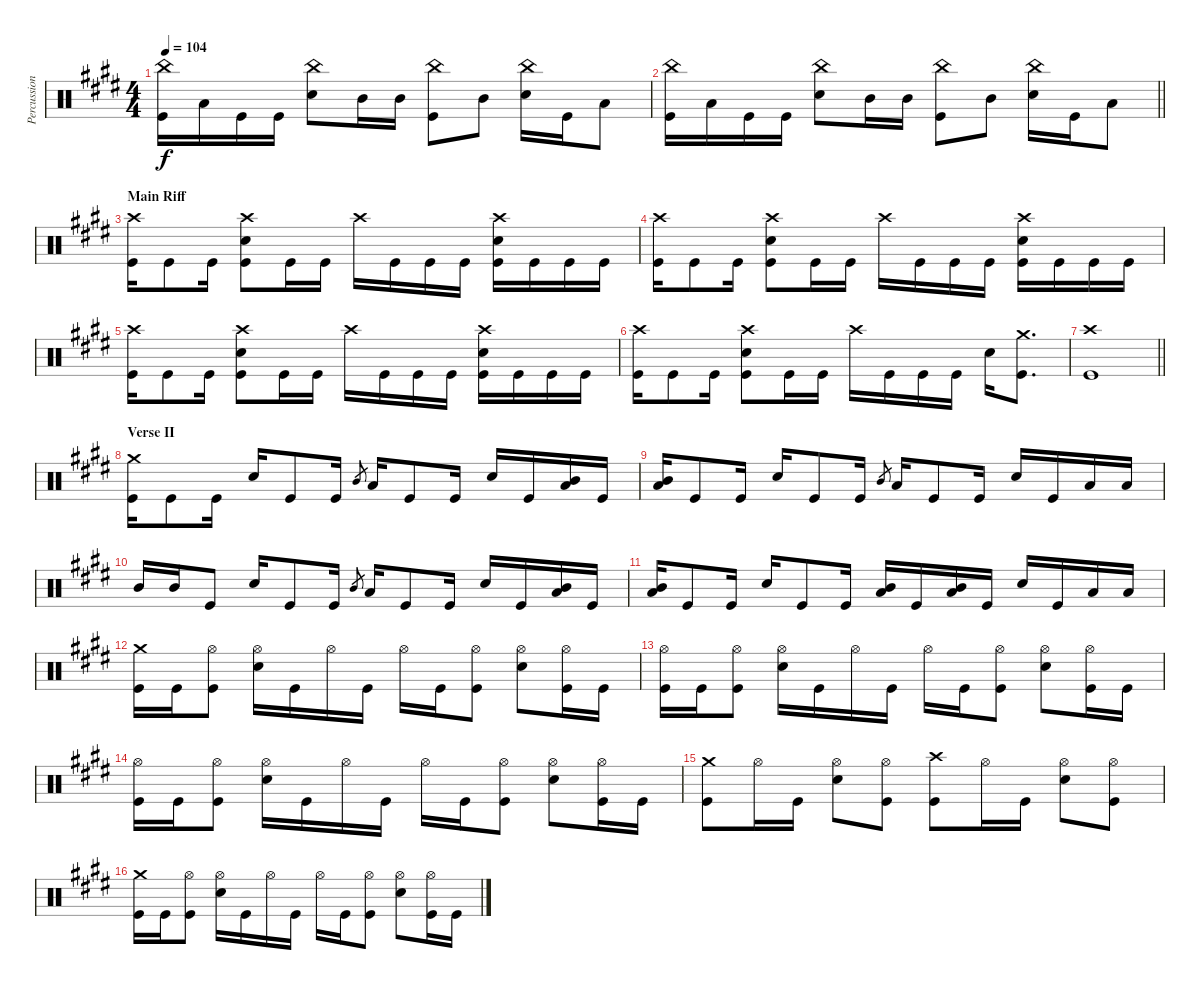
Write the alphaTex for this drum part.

\track ("Percussion" "Percussion") {instrument percussion}
\staff {score}
\articulation defaults
\ts (4 4)
\tempo 104
\clef neutral
\ks e
("China (hit)" "Kick (hit)").16{dy f} "Low Tom (hit)".16 "Kick (hit)".16 "Kick (hit)".16 ("China (hit)" "Electric Snare (hit)").8 "Mid Tom (hit)".16 "Mid Tom (hit)".16 ("China (hit)" "Kick (hit)").8 "Mid Tom (hit)".8 ("China (hit)" "Electric Snare (hit)").16 "Kick (hit)".16 "Low Tom (hit)".8 |
\barLineRight lightlight
("China (hit)" "Kick (hit)").16 "Low Tom (hit)".16 "Kick (hit)".16 "Kick (hit)".16 ("China (hit)" "Electric Snare (hit)").8 "Mid Tom (hit)".16 "Mid Tom (hit)".16 ("China (hit)" "Kick (hit)").8 "Mid Tom (hit)".8 ("China (hit)" "Electric Snare (hit)").16 "Kick (hit)".16 "Low Tom (hit)".8 |
\section ("" "Main Riff")
("Crash high (hit)" "Kick (hit)").16 "Kick (hit)".8 "Kick (hit)".16 ("Crash high (hit)" "Electric Snare (hit)" "Kick (hit)").8 "Kick (hit)".16 "Kick (hit)".16 "Crash high (hit)".16 "Kick (hit)".16 "Kick (hit)".16 "Kick (hit)".16 ("Crash high (hit)" "Electric Snare (hit)" "Kick (hit)").16 "Kick (hit)".16 "Kick (hit)".16 "Kick (hit)".16 |
("Crash high (hit)" "Kick (hit)").16 "Kick (hit)".8 "Kick (hit)".16 ("Crash high (hit)" "Electric Snare (hit)" "Kick (hit)").8 "Kick (hit)".16 "Kick (hit)".16 "Crash high (hit)".16 "Kick (hit)".16 "Kick (hit)".16 "Kick (hit)".16 ("Crash high (hit)" "Electric Snare (hit)" "Kick (hit)").16 "Kick (hit)".16 "Kick (hit)".16 "Kick (hit)".16 |
("Crash high (hit)" "Kick (hit)").16 "Kick (hit)".8 "Kick (hit)".16 ("Crash high (hit)" "Electric Snare (hit)" "Kick (hit)").8 "Kick (hit)".16 "Kick (hit)".16 "Crash high (hit)".16 "Kick (hit)".16 "Kick (hit)".16 "Kick (hit)".16 ("Crash high (hit)" "Electric Snare (hit)" "Kick (hit)").16 "Kick (hit)".16 "Kick (hit)".16 "Kick (hit)".16 |
("Crash high (hit)" "Kick (hit)").16 "Kick (hit)".8 "Kick (hit)".16 ("Crash high (hit)" "Electric Snare (hit)" "Kick (hit)").8 "Kick (hit)".16 "Kick (hit)".16 "Crash high (hit)".16 "Kick (hit)".16 "Kick (hit)".16 "Kick (hit)".16 "Electric Snare (hit)".16 ("Crash medium (hit)" "Kick (hit)").8{d} |
\barLineRight lightlight
("Crash high (hit)" "Kick (hit)").1 |
\section ("" "Verse II")
("Crash medium (hit)" "Kick (hit)").16 "Kick (hit)".8 "Kick (hit)".16 "Electric Snare (hit)".16 "Kick (hit)".8 "Kick (hit)".16 "Mid Tom (hit)".8{gr} "Low Tom (hit)".16 "Kick (hit)".8 "Kick (hit)".16 "Electric Snare (hit)".16 "Kick (hit)".16 ("Mid Tom (hit)" "Low Tom (hit)").16 "Kick (hit)".16 |
("Mid Tom (hit)" "Low Tom (hit)").16 "Kick (hit)".8 "Kick (hit)".16 "Electric Snare (hit)".16 "Kick (hit)".8 "Kick (hit)".16 "Mid Tom (hit)".8{gr} "Low Tom (hit)".16 "Kick (hit)".8 "Kick (hit)".16 "Electric Snare (hit)".16 "Kick (hit)".16 "Low Tom (hit)".16 "Low Tom (hit)".16 |
"Mid Tom (hit)".16 "Mid Tom (hit)".16 "Kick (hit)".8 "Electric Snare (hit)".16 "Kick (hit)".8 "Kick (hit)".16 "Mid Tom (hit)".8{gr} "Low Tom (hit)".16 "Kick (hit)".8 "Kick (hit)".16 "Electric Snare (hit)".16 "Kick (hit)".16 ("Mid Tom (hit)" "Low Tom (hit)").16 "Kick (hit)".16 |
("Mid Tom (hit)" "Low Tom (hit)").16 "Kick (hit)".8 "Kick (hit)".16 "Electric Snare (hit)".16 "Kick (hit)".8 "Kick (hit)".16 ("Mid Tom (hit)" "Low Tom (hit)").16 "Kick (hit)".16 ("Mid Tom (hit)" "Low Tom (hit)").16 "Kick (hit)".16 "Electric Snare (hit)".16 "Kick (hit)".16 "Low Tom (hit)".16 "Low Tom (hit)".16 |
("Crash medium (hit)" "Kick (hit)").16 "Kick (hit)".16 ("Hi-Hat (open)" "Kick (hit)").8 ("Hi-Hat (open)" "Electric Snare (hit)").16 "Kick (hit)".16 "Hi-Hat (open)".16 "Kick (hit)".16 "Hi-Hat (open)".16 "Kick (hit)".16 ("Hi-Hat (open)" "Kick (hit)").8 ("Hi-Hat (open)" "Electric Snare (hit)").8 ("Hi-Hat (open)" "Kick (hit)").16 "Kick (hit)".16 |
("Hi-Hat (open)" "Kick (hit)").16 "Kick (hit)".16 ("Hi-Hat (open)" "Kick (hit)").8 ("Hi-Hat (open)" "Electric Snare (hit)").16 "Kick (hit)".16 "Hi-Hat (open)".16 "Kick (hit)".16 "Hi-Hat (open)".16 "Kick (hit)".16 ("Hi-Hat (open)" "Kick (hit)").8 ("Hi-Hat (open)" "Electric Snare (hit)").8 ("Hi-Hat (open)" "Kick (hit)").16 "Kick (hit)".16 |
("Hi-Hat (open)" "Kick (hit)").16 "Kick (hit)".16 ("Hi-Hat (open)" "Kick (hit)").8 ("Hi-Hat (open)" "Electric Snare (hit)").16 "Kick (hit)".16 "Hi-Hat (open)".16 "Kick (hit)".16 "Hi-Hat (open)".16 "Kick (hit)".16 ("Hi-Hat (open)" "Kick (hit)").8 ("Hi-Hat (open)" "Electric Snare (hit)").8 ("Hi-Hat (open)" "Kick (hit)").16 "Kick (hit)".16 |
("Crash medium (hit)" "Kick (hit)").8 "Hi-Hat (open)".16 "Kick (hit)".16 ("Hi-Hat (open)" "Electric Snare (hit)").8 ("Hi-Hat (open)" "Kick (hit)").8 ("Crash high (hit)" "Kick (hit)").8 "Hi-Hat (open)".16 "Kick (hit)".16 ("Hi-Hat (open)" "Electric Snare (hit)").8 ("Hi-Hat (open)" "Kick (hit)").8 |
("Crash medium (hit)" "Kick (hit)").16 "Kick (hit)".16 ("Hi-Hat (open)" "Kick (hit)").8 ("Hi-Hat (open)" "Electric Snare (hit)").16 "Kick (hit)".16 "Hi-Hat (open)".16 "Kick (hit)".16 "Hi-Hat (open)".16 "Kick (hit)".16 ("Hi-Hat (open)" "Kick (hit)").8 ("Hi-Hat (open)" "Electric Snare (hit)").8 ("Hi-Hat (open)" "Kick (hit)").16 "Kick (hit)".16
